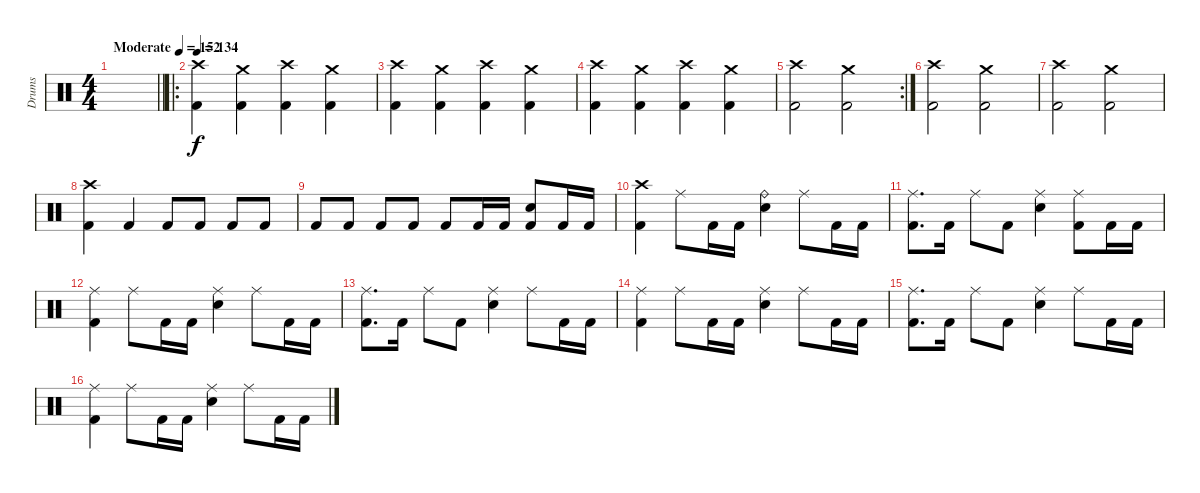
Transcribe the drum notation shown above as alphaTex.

\track ("Drums" "Drums") {instrument percussion}
\staff {score}
\articulation defaults
\ts (4 4)
\tempo (152 "Moderate")
\clef neutral
\barLineRight lightlight
\ks c
|
\ro
\section ("" "")
\tempo 134
("Crash high (hit)" "Kick (hit) 2").4 ("Crash medium (hit)" "Kick (hit) 2").4 ("Crash high (hit)" "Kick (hit) 2").4 ("Crash medium (hit)" "Kick (hit) 2").4 |
("Crash high (hit)" "Kick (hit) 2").4 ("Crash medium (hit)" "Kick (hit) 2").4 ("Crash high (hit)" "Kick (hit) 2").4 ("Crash medium (hit)" "Kick (hit) 2").4 |
("Crash high (hit)" "Kick (hit) 2").4 ("Crash medium (hit)" "Kick (hit) 2").4 ("Crash high (hit)" "Kick (hit) 2").4 ("Crash medium (hit)" "Kick (hit) 2").4 |
\rc 2
("Crash high (hit)" "Kick (hit) 2").2 ("Crash medium (hit)" "Kick (hit) 2").2 |
("Crash high (hit)" "Kick (hit) 2").2 ("Crash medium (hit)" "Kick (hit) 2").2 |
("Crash high (hit)" "Kick (hit) 2").2 ("Crash medium (hit)" "Kick (hit) 2").2 |
("Crash high (hit)" "Kick (hit) 2").4 "Kick (hit) 2".4 "Kick (hit) 2".8 "Kick (hit) 2".8 "Kick (hit) 2".8 "Kick (hit) 2".8 |
"Kick (hit) 2".8 "Kick (hit) 2".8 "Kick (hit) 2".8 "Kick (hit) 2".8 "Kick (hit) 2".8 "Kick (hit) 2".16 "Kick (hit) 2".16 ("Snare (hit) 2" "Kick (hit) 2").8 "Kick (hit) 2".16 "Kick (hit) 2".16 |
("Crash high (hit)" "Kick (hit) 2").4 "Ride (middle)".8 "Kick (hit) 2".16 "Kick (hit) 2".16 ("Ride (bell)" "Snare (hit) 2").4 "Ride (middle)".8 "Kick (hit) 2".16 "Kick (hit) 2".16 |
("Ride (middle)" "Kick (hit) 2").8{d} "Kick (hit) 2".16 "Ride (middle)".8 "Kick (hit) 2".8 ("Ride (middle)" "Snare (hit) 2").4 ("Ride (middle)" "Kick (hit) 2").8 "Kick (hit) 2".16 "Kick (hit) 2".16 |
("Ride (middle)" "Kick (hit) 2").4 "Ride (middle)".8 "Kick (hit) 2".16 "Kick (hit) 2".16 ("Ride (middle)" "Snare (hit) 2").4 "Ride (middle)".8 "Kick (hit) 2".16 "Kick (hit) 2".16 |
("Ride (middle)" "Kick (hit) 2").8{d} "Kick (hit) 2".16 "Ride (middle)".8 "Kick (hit) 2".8 ("Ride (middle)" "Snare (hit) 2").4 "Ride (middle)".8 "Kick (hit) 2".16 "Kick (hit) 2".16 |
("Ride (middle)" "Kick (hit) 2").4 "Ride (middle)".8 "Kick (hit) 2".16 "Kick (hit) 2".16 ("Ride (middle)" "Snare (hit) 2").4 "Ride (middle)".8 "Kick (hit) 2".16 "Kick (hit) 2".16 |
("Ride (middle)" "Kick (hit) 2").8{d} "Kick (hit) 2".16 "Ride (middle)".8 "Kick (hit) 2".8 ("Ride (middle)" "Snare (hit) 2").4 "Ride (middle)".8 "Kick (hit) 2".16 "Kick (hit) 2".16 |
("Ride (middle)" "Kick (hit) 2").4 "Ride (middle)".8 "Kick (hit) 2".16 "Kick (hit) 2".16 ("Ride (middle)" "Snare (hit) 2").4 "Ride (middle)".8 "Kick (hit) 2".16 "Kick (hit) 2".16
